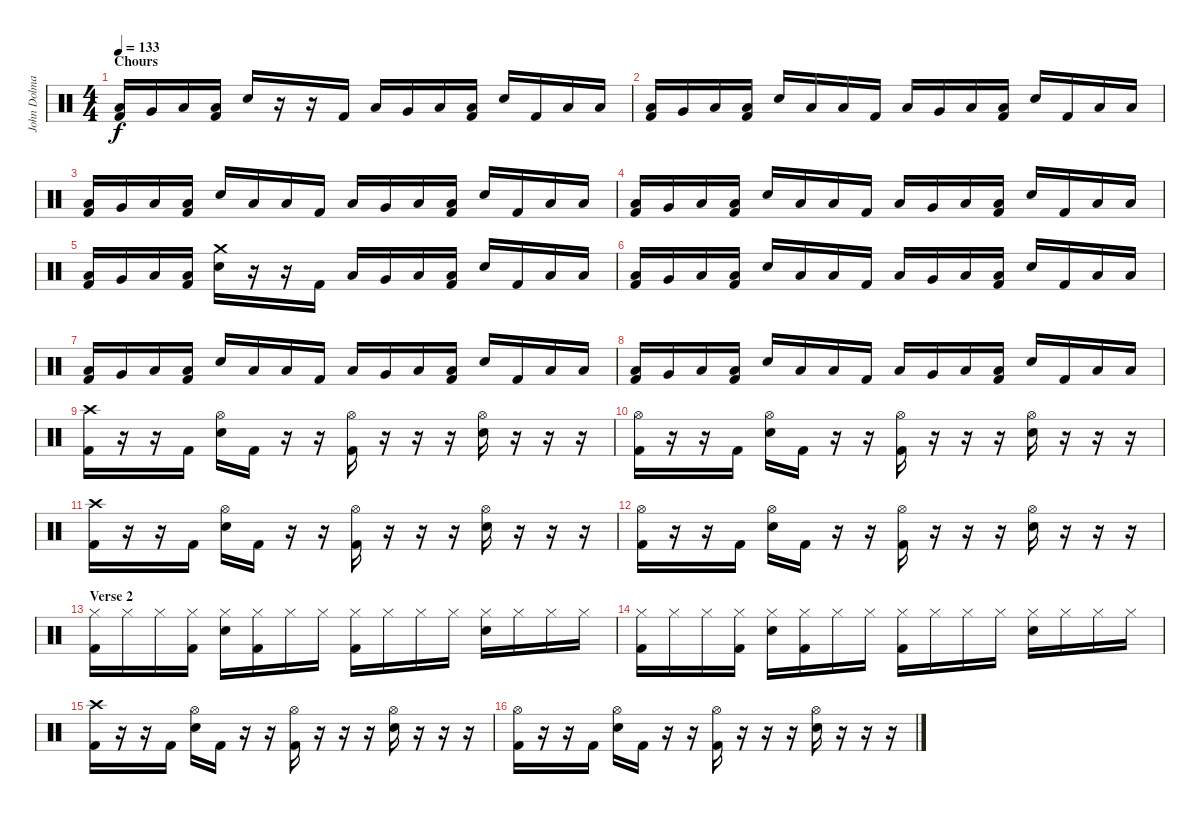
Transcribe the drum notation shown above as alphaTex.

\track ("John Dolmayan" "John Dolma") {instrument percussion}
\staff {score}
\articulation defaults
\ts (4 4)
\section ("" "Chours")
\tempo 133
\clef neutral
\ks c
("Low Tom (hit)" "Kick (hit) 2").16{dy f} "Very Low Tom (hit)".16 "Low Floor Tom (hit)".16 ("Low Floor Tom (hit)" "Kick (hit) 2").16 "Electric Snare (hit)".16 r.16 r.16 "Kick (hit) 2".16 "Low Tom (hit)".16 "Very Low Tom (hit)".16 "Low Floor Tom (hit)".16 ("Low Floor Tom (hit)" "Kick (hit) 2").16 "Electric Snare (hit)".16 "Kick (hit) 2".16 "Low Floor Tom (hit)".16 "Low Floor Tom (hit)".16 |
("Low Tom (hit)" "Kick (hit) 2").16 "Very Low Tom (hit)".16 "Low Floor Tom (hit)".16 ("Low Floor Tom (hit)" "Kick (hit) 2").16 "Electric Snare (hit)".16 "Low Floor Tom (hit)".16 "Low Floor Tom (hit)".16 "Kick (hit) 2".16 "Low Tom (hit)".16 "Very Low Tom (hit)".16 "Low Floor Tom (hit)".16 ("Low Floor Tom (hit)" "Kick (hit) 2").16 "Electric Snare (hit)".16 "Kick (hit) 2".16 "Low Floor Tom (hit)".16 "Low Floor Tom (hit)".16 |
("Low Tom (hit)" "Kick (hit) 2").16 "Very Low Tom (hit)".16 "Low Floor Tom (hit)".16 ("Low Floor Tom (hit)" "Kick (hit) 2").16 "Electric Snare (hit)".16 "Low Floor Tom (hit)".16 "Low Floor Tom (hit)".16 "Kick (hit) 2".16 "Low Tom (hit)".16 "Very Low Tom (hit)".16 "Low Floor Tom (hit)".16 ("Low Floor Tom (hit)" "Kick (hit) 2").16 "Electric Snare (hit)".16 "Kick (hit) 2".16 "Low Floor Tom (hit)".16 "Low Floor Tom (hit)".16 |
("Low Tom (hit)" "Kick (hit) 2").16 "Very Low Tom (hit)".16 "Low Floor Tom (hit)".16 ("Low Floor Tom (hit)" "Kick (hit) 2").16 "Electric Snare (hit)".16 "Low Floor Tom (hit)".16 "Low Floor Tom (hit)".16 "Kick (hit) 2".16 "Low Tom (hit)".16 "Very Low Tom (hit)".16 "Low Floor Tom (hit)".16 ("Low Floor Tom (hit)" "Kick (hit) 2").16 "Electric Snare (hit)".16 "Kick (hit) 2".16 "Low Floor Tom (hit)".16 "Low Floor Tom (hit)".16 |
("Low Tom (hit)" "Kick (hit) 2").16 "Very Low Tom (hit)".16 "Low Floor Tom (hit)".16 ("Low Floor Tom (hit)" "Kick (hit) 2").16 ("Crash medium (hit)" "Electric Snare (hit)").16 r.16 r.16 "Kick (hit) 2".16 "Low Tom (hit)".16 "Very Low Tom (hit)".16 "Low Floor Tom (hit)".16 ("Low Floor Tom (hit)" "Kick (hit) 2").16 "Electric Snare (hit)".16 "Kick (hit) 2".16 "Low Floor Tom (hit)".16 "Low Floor Tom (hit)".16 |
("Low Tom (hit)" "Kick (hit) 2").16 "Very Low Tom (hit)".16 "Low Floor Tom (hit)".16 ("Low Floor Tom (hit)" "Kick (hit) 2").16 "Electric Snare (hit)".16 "Low Floor Tom (hit)".16 "Low Floor Tom (hit)".16 "Kick (hit) 2".16 "Low Tom (hit)".16 "Very Low Tom (hit)".16 "Low Floor Tom (hit)".16 ("Low Floor Tom (hit)" "Kick (hit) 2").16 "Electric Snare (hit)".16 "Kick (hit) 2".16 "Low Floor Tom (hit)".16 "Low Floor Tom (hit)".16 |
("Low Tom (hit)" "Kick (hit) 2").16 "Very Low Tom (hit)".16 "Low Floor Tom (hit)".16 ("Low Floor Tom (hit)" "Kick (hit) 2").16 "Electric Snare (hit)".16 "Low Floor Tom (hit)".16 "Low Floor Tom (hit)".16 "Kick (hit) 2".16 "Low Tom (hit)".16 "Very Low Tom (hit)".16 "Low Floor Tom (hit)".16 ("Low Floor Tom (hit)" "Kick (hit) 2").16 "Electric Snare (hit)".16 "Kick (hit) 2".16 "Low Floor Tom (hit)".16 "Low Floor Tom (hit)".16 |
("Low Tom (hit)" "Kick (hit) 2").16 "Very Low Tom (hit)".16 "Low Floor Tom (hit)".16 ("Low Floor Tom (hit)" "Kick (hit) 2").16 "Electric Snare (hit)".16 "Low Floor Tom (hit)".16 "Low Floor Tom (hit)".16 "Kick (hit) 2".16 "Low Tom (hit)".16 "Very Low Tom (hit)".16 "Low Floor Tom (hit)".16 ("Low Floor Tom (hit)" "Kick (hit) 2").16 "Electric Snare (hit)".16 "Kick (hit) 2".16 "Low Floor Tom (hit)".16 "Low Floor Tom (hit)".16 |
("Crash high (hit)" "Kick (hit) 2").16 r.16 r.16 "Kick (hit) 2".16 ("Hi-Hat (open)" "Electric Snare (hit)").16 "Kick (hit) 2".16 r.16 r.16 ("Hi-Hat (open)" "Kick (hit) 2").16 r.16 r.16 r.16 ("Hi-Hat (open)" "Electric Snare (hit)").16 r.16 r.16 r.16 |
("Hi-Hat (open)" "Kick (hit) 2").16 r.16 r.16 "Kick (hit) 2".16 ("Hi-Hat (open)" "Electric Snare (hit)").16 "Kick (hit) 2".16 r.16 r.16 ("Hi-Hat (open)" "Kick (hit) 2").16 r.16 r.16 r.16 ("Hi-Hat (open)" "Electric Snare (hit)").16 r.16 r.16 r.16 |
("Crash high (hit)" "Kick (hit) 2").16 r.16 r.16 "Kick (hit) 2".16 ("Hi-Hat (open)" "Electric Snare (hit)").16 "Kick (hit) 2".16 r.16 r.16 ("Hi-Hat (open)" "Kick (hit) 2").16 r.16 r.16 r.16 ("Hi-Hat (open)" "Electric Snare (hit)").16 r.16 r.16 r.16 |
("Hi-Hat (open)" "Kick (hit) 2").16 r.16 r.16 "Kick (hit) 2".16 ("Hi-Hat (open)" "Electric Snare (hit)").16 "Kick (hit) 2".16 r.16 r.16 ("Hi-Hat (open)" "Kick (hit) 2").16 r.16 r.16 r.16 ("Hi-Hat (open)" "Electric Snare (hit)").16 r.16 r.16 r.16 |
\section ("" "Verse 2")
("Hi-Hat (closed)" "Kick (hit) 2").16 "Hi-Hat (closed)".16 "Hi-Hat (closed)".16 ("Hi-Hat (closed)" "Kick (hit) 2").16 ("Hi-Hat (closed)" "Electric Snare (hit)").16 ("Hi-Hat (closed)" "Kick (hit) 2").16 "Hi-Hat (closed)".16 "Hi-Hat (closed)".16 ("Hi-Hat (closed)" "Kick (hit) 2").16 "Hi-Hat (closed)".16 "Hi-Hat (closed)".16 "Hi-Hat (closed)".16 ("Hi-Hat (closed)" "Electric Snare (hit)").16 "Hi-Hat (closed)".16 "Hi-Hat (closed)".16 "Hi-Hat (closed)".16 |
("Hi-Hat (closed)" "Kick (hit) 2").16 "Hi-Hat (closed)".16 "Hi-Hat (closed)".16 ("Hi-Hat (closed)" "Kick (hit) 2").16 ("Hi-Hat (closed)" "Electric Snare (hit)").16 ("Hi-Hat (closed)" "Kick (hit) 2").16 "Hi-Hat (closed)".16 "Hi-Hat (closed)".16 ("Hi-Hat (closed)" "Kick (hit) 2").16 "Hi-Hat (closed)".16 "Hi-Hat (closed)".16 "Hi-Hat (closed)".16 ("Hi-Hat (closed)" "Electric Snare (hit)").16 "Hi-Hat (closed)".16 "Hi-Hat (closed)".16 "Hi-Hat (closed)".16 |
("Crash high (hit)" "Kick (hit) 2").16 r.16 r.16 "Kick (hit) 2".16 ("Hi-Hat (open)" "Electric Snare (hit)").16 "Kick (hit) 2".16 r.16 r.16 ("Hi-Hat (open)" "Kick (hit) 2").16 r.16 r.16 r.16 ("Hi-Hat (open)" "Electric Snare (hit)").16 r.16 r.16 r.16 |
("Hi-Hat (open)" "Kick (hit) 2").16 r.16 r.16 "Kick (hit) 2".16 ("Hi-Hat (open)" "Electric Snare (hit)").16 "Kick (hit) 2".16 r.16 r.16 ("Hi-Hat (open)" "Kick (hit) 2").16 r.16 r.16 r.16 ("Hi-Hat (open)" "Electric Snare (hit)").16 r.16 r.16 r.16
